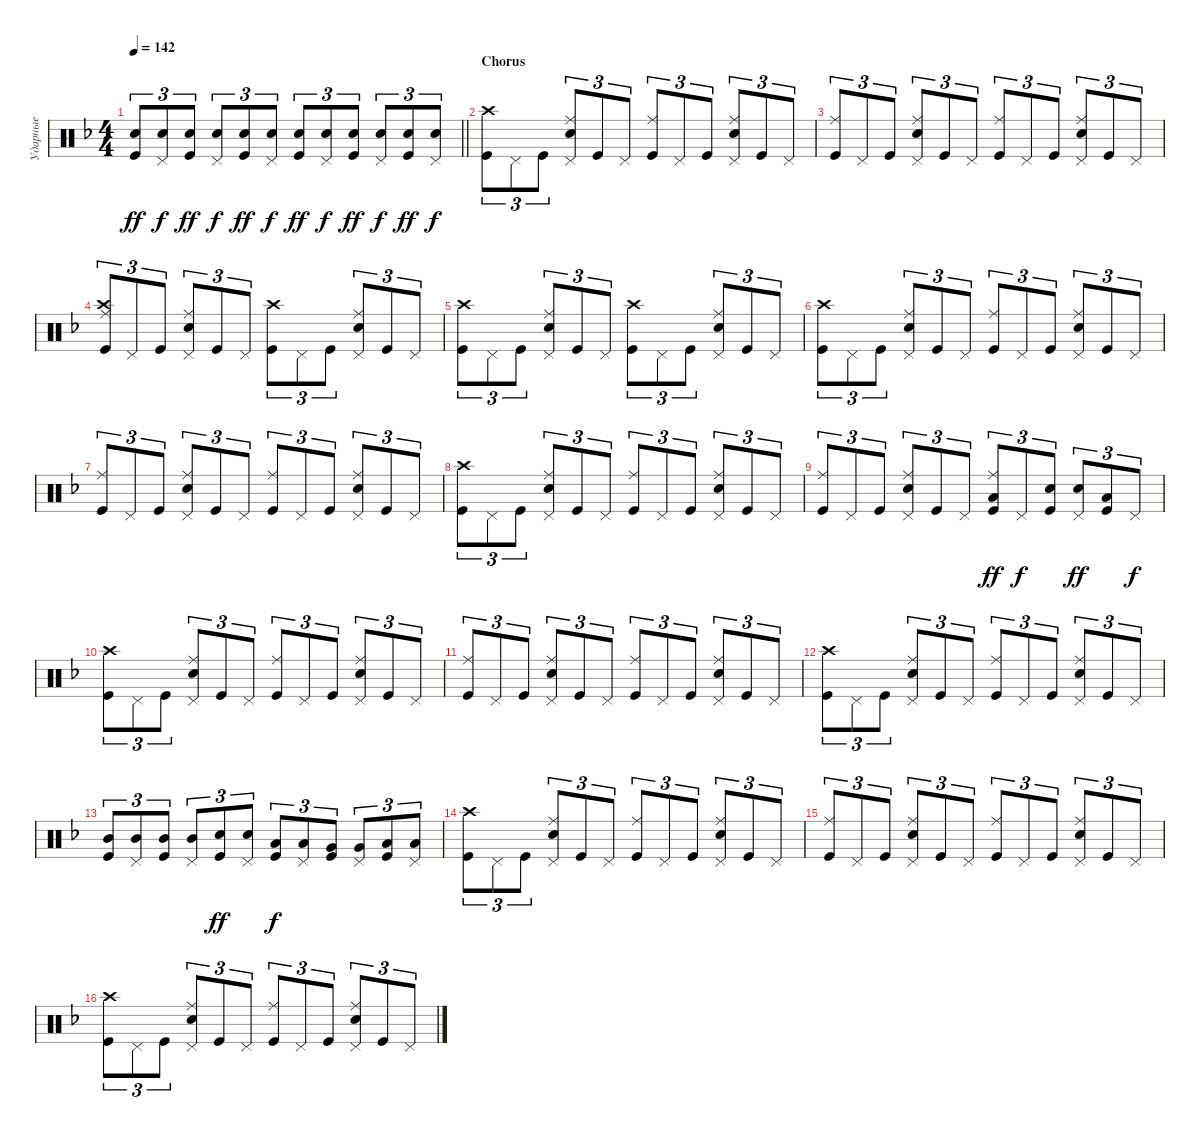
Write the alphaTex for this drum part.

\track ("Ударные" "Ударные") {instrument percussion}
\staff {score}
\articulation defaults
\ts (4 4)
\tempo 142
\clef neutral
\barLineRight lightlight
\ks dminor
("Kick (hit)" "Snare (hit) 2").8{tu (3 2) dy ff} ("Snare (hit) 2" "Pedal Hi-Hat (hit)").8{tu (3 2) dy f} ("Snare (hit) 2" "Kick (hit)").8{tu (3 2) dy ff} ("Snare (hit) 2" "Pedal Hi-Hat (hit)").8{tu (3 2) dy f} ("Snare (hit) 2" "Kick (hit)").8{tu (3 2) dy ff} ("Snare (hit) 2" "Pedal Hi-Hat (hit)").8{tu (3 2) dy f} ("Kick (hit)" "Snare (hit) 2").8{tu (3 2) dy ff} ("Snare (hit) 2" "Pedal Hi-Hat (hit)").8{tu (3 2) dy f} ("Snare (hit) 2" "Kick (hit)").8{tu (3 2) dy ff} ("Snare (hit) 2" "Pedal Hi-Hat (hit)").8{tu (3 2) dy f} ("Snare (hit) 2" "Kick (hit)").8{tu (3 2) dy ff} ("Snare (hit) 2" "Pedal Hi-Hat (hit)").8{tu (3 2) dy f} |
\section ("" "Chorus")
("Kick (hit)" "Crash high (hit)").8{tu (3 2)} "Pedal Hi-Hat (hit)".8{tu (3 2)} "Kick (hit)".8{tu (3 2)} ("Snare (hit) 2" "Ride (middle)" "Pedal Hi-Hat (hit)").8{tu (3 2)} "Kick (hit)".8{tu (3 2)} "Pedal Hi-Hat (hit)".8{tu (3 2)} ("Kick (hit)" "Ride (middle)").8{tu (3 2)} "Pedal Hi-Hat (hit)".8{tu (3 2)} "Kick (hit)".8{tu (3 2)} ("Snare (hit) 2" "Ride (middle)" "Pedal Hi-Hat (hit)").8{tu (3 2)} "Kick (hit)".8{tu (3 2)} "Pedal Hi-Hat (hit)".8{tu (3 2)} |
("Kick (hit)" "Ride (middle)").8{tu (3 2)} "Pedal Hi-Hat (hit)".8{tu (3 2)} "Kick (hit)".8{tu (3 2)} ("Snare (hit) 2" "Ride (middle)" "Pedal Hi-Hat (hit)").8{tu (3 2)} "Kick (hit)".8{tu (3 2)} "Pedal Hi-Hat (hit)".8{tu (3 2)} ("Kick (hit)" "Ride (middle)").8{tu (3 2)} "Pedal Hi-Hat (hit)".8{tu (3 2)} "Kick (hit)".8{tu (3 2)} ("Snare (hit) 2" "Ride (middle)" "Pedal Hi-Hat (hit)").8{tu (3 2)} "Kick (hit)".8{tu (3 2)} "Pedal Hi-Hat (hit)".8{tu (3 2)} |
("Kick (hit)" "Ride (middle)" "Crash high (hit)").8{tu (3 2)} "Pedal Hi-Hat (hit)".8{tu (3 2)} "Kick (hit)".8{tu (3 2)} ("Snare (hit) 2" "Ride (middle)" "Pedal Hi-Hat (hit)").8{tu (3 2)} "Kick (hit)".8{tu (3 2)} "Pedal Hi-Hat (hit)".8{tu (3 2)} ("Kick (hit)" "Crash high (hit)").8{tu (3 2)} "Pedal Hi-Hat (hit)".8{tu (3 2)} "Kick (hit)".8{tu (3 2)} ("Snare (hit) 2" "Ride (middle)" "Pedal Hi-Hat (hit)").8{tu (3 2)} "Kick (hit)".8{tu (3 2)} "Pedal Hi-Hat (hit)".8{tu (3 2)} |
("Kick (hit)" "Crash high (hit)").8{tu (3 2)} "Pedal Hi-Hat (hit)".8{tu (3 2)} "Kick (hit)".8{tu (3 2)} ("Snare (hit) 2" "Ride (middle)" "Pedal Hi-Hat (hit)").8{tu (3 2)} "Kick (hit)".8{tu (3 2)} "Pedal Hi-Hat (hit)".8{tu (3 2)} ("Kick (hit)" "Crash high (hit)").8{tu (3 2)} "Pedal Hi-Hat (hit)".8{tu (3 2)} "Kick (hit)".8{tu (3 2)} ("Snare (hit) 2" "Ride (middle)" "Pedal Hi-Hat (hit)").8{tu (3 2)} "Kick (hit)".8{tu (3 2)} "Pedal Hi-Hat (hit)".8{tu (3 2)} |
("Crash high (hit)" "Kick (hit)").8{tu (3 2)} "Pedal Hi-Hat (hit)".8{tu (3 2)} "Kick (hit)".8{tu (3 2)} ("Snare (hit) 2" "Ride (middle)" "Pedal Hi-Hat (hit)").8{tu (3 2)} "Kick (hit)".8{tu (3 2)} "Pedal Hi-Hat (hit)".8{tu (3 2)} ("Kick (hit)" "Ride (middle)").8{tu (3 2)} "Pedal Hi-Hat (hit)".8{tu (3 2)} "Kick (hit)".8{tu (3 2)} ("Snare (hit) 2" "Ride (middle)" "Pedal Hi-Hat (hit)").8{tu (3 2)} "Kick (hit)".8{tu (3 2)} "Pedal Hi-Hat (hit)".8{tu (3 2)} |
("Kick (hit)" "Ride (middle)").8{tu (3 2)} "Pedal Hi-Hat (hit)".8{tu (3 2)} "Kick (hit)".8{tu (3 2)} ("Snare (hit) 2" "Ride (middle)" "Pedal Hi-Hat (hit)").8{tu (3 2)} "Kick (hit)".8{tu (3 2)} "Pedal Hi-Hat (hit)".8{tu (3 2)} ("Kick (hit)" "Ride (middle)").8{tu (3 2)} "Pedal Hi-Hat (hit)".8{tu (3 2)} "Kick (hit)".8{tu (3 2)} ("Snare (hit) 2" "Ride (middle)" "Pedal Hi-Hat (hit)").8{tu (3 2)} "Kick (hit)".8{tu (3 2)} "Pedal Hi-Hat (hit)".8{tu (3 2)} |
("Kick (hit)" "Crash high (hit)").8{tu (3 2)} "Pedal Hi-Hat (hit)".8{tu (3 2)} "Kick (hit)".8{tu (3 2)} ("Snare (hit) 2" "Ride (middle)" "Pedal Hi-Hat (hit)").8{tu (3 2)} "Kick (hit)".8{tu (3 2)} "Pedal Hi-Hat (hit)".8{tu (3 2)} ("Kick (hit)" "Ride (middle)").8{tu (3 2)} "Pedal Hi-Hat (hit)".8{tu (3 2)} "Kick (hit)".8{tu (3 2)} ("Snare (hit) 2" "Ride (middle)" "Pedal Hi-Hat (hit)").8{tu (3 2)} "Kick (hit)".8{tu (3 2)} "Pedal Hi-Hat (hit)".8{tu (3 2)} |
("Kick (hit)" "Ride (middle)").8{tu (3 2)} "Pedal Hi-Hat (hit)".8{tu (3 2)} "Kick (hit)".8{tu (3 2)} ("Snare (hit) 2" "Ride (middle)" "Pedal Hi-Hat (hit)").8{tu (3 2)} "Kick (hit)".8{tu (3 2)} "Pedal Hi-Hat (hit)".8{tu (3 2)} ("Kick (hit)" "Ride (middle)" "Low Tom (hit)").8{tu (3 2) bd 240 dy ff} "Pedal Hi-Hat (hit)".8{tu (3 2) dy f} ("Snare (hit) 2" "Kick (hit)").8{tu (3 2) bd 240} ("Snare (hit) 2" "Pedal Hi-Hat (hit)").8{tu (3 2) dy ff} ("Low Tom (hit)" "Kick (hit)").8{tu (3 2) bd 240} "Pedal Hi-Hat (hit)".8{tu (3 2) dy f} |
("Kick (hit)" "Crash high (hit)").8{tu (3 2)} "Pedal Hi-Hat (hit)".8{tu (3 2)} "Kick (hit)".8{tu (3 2)} ("Snare (hit) 2" "Ride (middle)" "Pedal Hi-Hat (hit)").8{tu (3 2)} "Kick (hit)".8{tu (3 2)} "Pedal Hi-Hat (hit)".8{tu (3 2)} ("Kick (hit)" "Ride (middle)").8{tu (3 2)} "Pedal Hi-Hat (hit)".8{tu (3 2)} "Kick (hit)".8{tu (3 2)} ("Snare (hit) 2" "Ride (middle)" "Pedal Hi-Hat (hit)").8{tu (3 2)} "Kick (hit)".8{tu (3 2)} "Pedal Hi-Hat (hit)".8{tu (3 2)} |
("Kick (hit)" "Ride (middle)").8{tu (3 2)} "Pedal Hi-Hat (hit)".8{tu (3 2)} "Kick (hit)".8{tu (3 2)} ("Snare (hit) 2" "Ride (middle)" "Pedal Hi-Hat (hit)").8{tu (3 2)} "Kick (hit)".8{tu (3 2)} "Pedal Hi-Hat (hit)".8{tu (3 2)} ("Kick (hit)" "Ride (middle)").8{tu (3 2)} "Pedal Hi-Hat (hit)".8{tu (3 2)} "Kick (hit)".8{tu (3 2)} ("Snare (hit) 2" "Ride (middle)" "Pedal Hi-Hat (hit)").8{tu (3 2)} "Kick (hit)".8{tu (3 2)} "Pedal Hi-Hat (hit)".8{tu (3 2)} |
("Kick (hit)" "Crash high (hit)").8{tu (3 2)} "Pedal Hi-Hat (hit)".8{tu (3 2)} "Kick (hit)".8{tu (3 2)} ("Snare (hit) 2" "Ride (middle)" "Pedal Hi-Hat (hit)").8{tu (3 2)} "Kick (hit)".8{tu (3 2)} "Pedal Hi-Hat (hit)".8{tu (3 2)} ("Kick (hit)" "Ride (middle)").8{tu (3 2)} "Pedal Hi-Hat (hit)".8{tu (3 2)} "Kick (hit)".8{tu (3 2)} ("Snare (hit) 2" "Ride (middle)" "Pedal Hi-Hat (hit)").8{tu (3 2)} "Kick (hit)".8{tu (3 2)} "Pedal Hi-Hat (hit)".8{tu (3 2)} |
("Kick (hit)" "Mid Tom (hit)").8{tu (3 2)} ("Pedal Hi-Hat (hit)" "Mid Tom (hit)").8{tu (3 2)} ("Kick (hit)" "Mid Tom (hit)").8{tu (3 2)} ("Mid Tom (hit)" "Pedal Hi-Hat (hit)").8{tu (3 2)} ("Kick (hit)" "Snare (hit) 2").8{tu (3 2) dy ff} ("Snare (hit) 2" "Pedal Hi-Hat (hit)").8{tu (3 2)} ("Kick (hit)" "Low Tom (hit)").8{tu (3 2) dy f} ("Pedal Hi-Hat (hit)" "Low Tom (hit)").8{tu (3 2)} ("Kick (hit)" "Very Low Tom (hit)").8{tu (3 2)} ("Very Low Tom (hit)" "Pedal Hi-Hat (hit)").8{tu (3 2)} ("Kick (hit)" "Low Floor Tom (hit)").8{tu (3 2)} ("Pedal Hi-Hat (hit)" "Low Floor Tom (hit)").8{tu (3 2)} |
("Kick (hit)" "Crash high (hit)").8{tu (3 2)} "Pedal Hi-Hat (hit)".8{tu (3 2)} "Kick (hit)".8{tu (3 2)} ("Snare (hit) 2" "Ride (middle)" "Pedal Hi-Hat (hit)").8{tu (3 2)} "Kick (hit)".8{tu (3 2)} "Pedal Hi-Hat (hit)".8{tu (3 2)} ("Kick (hit)" "Ride (middle)").8{tu (3 2)} "Pedal Hi-Hat (hit)".8{tu (3 2)} "Kick (hit)".8{tu (3 2)} ("Snare (hit) 2" "Ride (middle)" "Pedal Hi-Hat (hit)").8{tu (3 2)} "Kick (hit)".8{tu (3 2)} "Pedal Hi-Hat (hit)".8{tu (3 2)} |
("Kick (hit)" "Ride (middle)").8{tu (3 2)} "Pedal Hi-Hat (hit)".8{tu (3 2)} "Kick (hit)".8{tu (3 2)} ("Snare (hit) 2" "Ride (middle)" "Pedal Hi-Hat (hit)").8{tu (3 2)} "Kick (hit)".8{tu (3 2)} "Pedal Hi-Hat (hit)".8{tu (3 2)} ("Kick (hit)" "Ride (middle)").8{tu (3 2)} "Pedal Hi-Hat (hit)".8{tu (3 2)} "Kick (hit)".8{tu (3 2)} ("Snare (hit) 2" "Ride (middle)" "Pedal Hi-Hat (hit)").8{tu (3 2)} "Kick (hit)".8{tu (3 2)} "Pedal Hi-Hat (hit)".8{tu (3 2)} |
("Kick (hit)" "Crash high (hit)").8{tu (3 2)} "Pedal Hi-Hat (hit)".8{tu (3 2)} "Kick (hit)".8{tu (3 2)} ("Snare (hit) 2" "Ride (middle)" "Pedal Hi-Hat (hit)").8{tu (3 2)} "Kick (hit)".8{tu (3 2)} "Pedal Hi-Hat (hit)".8{tu (3 2)} ("Kick (hit)" "Ride (middle)").8{tu (3 2)} "Pedal Hi-Hat (hit)".8{tu (3 2)} "Kick (hit)".8{tu (3 2)} ("Snare (hit) 2" "Ride (middle)" "Pedal Hi-Hat (hit)").8{tu (3 2)} "Kick (hit)".8{tu (3 2)} "Pedal Hi-Hat (hit)".8{tu (3 2)}
